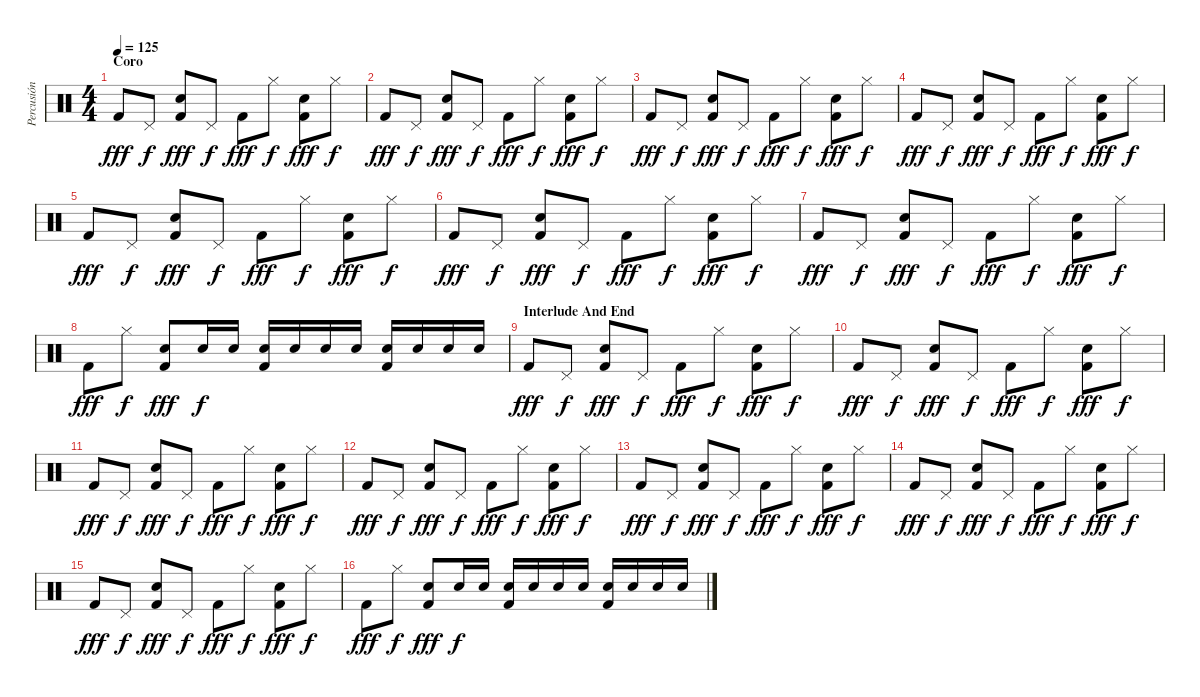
\track ("Percusión" "Percusión") {instrument percussion}
\staff {score}
\articulation defaults
\ts (4 4)
\section ("" "Coro")
\tempo 125
\clef neutral
\ks c "Kick (hit) 2".8{dy fff} "Pedal Hi-Hat (hit)".8{dy f}
("Electric Snare (hit)" "Kick (hit) 2").8{dy fff} "Pedal Hi-Hat (hit)".8{dy f} "Kick (hit) 2".8{dy fff} "Hi-Hat (closed)".8{dy f} ("Electric Snare (hit)" "Kick (hit) 2").8{dy fff} "Hi-Hat (closed)".8{dy f} |
"Kick (hit) 2".8{dy fff} "Pedal Hi-Hat (hit)".8{dy f} ("Electric Snare (hit)" "Kick (hit) 2").8{dy fff} "Pedal Hi-Hat (hit)".8{dy f} "Kick (hit) 2".8{dy fff} "Hi-Hat (closed)".8{dy f} ("Electric Snare (hit)" "Kick (hit) 2").8{dy fff} "Hi-Hat (closed)".8{dy f} |
"Kick (hit) 2".8{dy fff} "Pedal Hi-Hat (hit)".8{dy f} ("Electric Snare (hit)" "Kick (hit) 2").8{dy fff} "Pedal Hi-Hat (hit)".8{dy f} "Kick (hit) 2".8{dy fff} "Hi-Hat (closed)".8{dy f} ("Electric Snare (hit)" "Kick (hit) 2").8{dy fff} "Hi-Hat (closed)".8{dy f} |
"Kick (hit) 2".8{dy fff} "Pedal Hi-Hat (hit)".8{dy f} ("Electric Snare (hit)" "Kick (hit) 2").8{dy fff} "Pedal Hi-Hat (hit)".8{dy f} "Kick (hit) 2".8{dy fff} "Hi-Hat (closed)".8{dy f} ("Electric Snare (hit)" "Kick (hit) 2").8{dy fff} "Hi-Hat (closed)".8{dy f} |
"Kick (hit) 2".8{dy fff} "Pedal Hi-Hat (hit)".8{dy f} ("Electric Snare (hit)" "Kick (hit) 2").8{dy fff} "Pedal Hi-Hat (hit)".8{dy f} "Kick (hit) 2".8{dy fff} "Hi-Hat (closed)".8{dy f} ("Electric Snare (hit)" "Kick (hit) 2").8{dy fff} "Hi-Hat (closed)".8{dy f} |
"Kick (hit) 2".8{dy fff} "Pedal Hi-Hat (hit)".8{dy f} ("Electric Snare (hit)" "Kick (hit) 2").8{dy fff} "Pedal Hi-Hat (hit)".8{dy f} "Kick (hit) 2".8{dy fff} "Hi-Hat (closed)".8{dy f} ("Electric Snare (hit)" "Kick (hit) 2").8{dy fff} "Hi-Hat (closed)".8{dy f} |
"Kick (hit) 2".8{dy fff} "Pedal Hi-Hat (hit)".8{dy f} ("Electric Snare (hit)" "Kick (hit) 2").8{dy fff} "Pedal Hi-Hat (hit)".8{dy f} "Kick (hit) 2".8{dy fff} "Hi-Hat (closed)".8{dy f} ("Electric Snare (hit)" "Kick (hit) 2").8{dy fff} "Hi-Hat (closed)".8{dy f} |
"Kick (hit) 2".8{dy fff} "Hi-Hat (closed)".8{dy f} ("Electric Snare (hit)" "Kick (hit) 2").8{dy fff volume 7} "Electric Snare (hit)".16{dy f volume 13} "Electric Snare (hit)".16 ("Electric Snare (hit)" "Kick (hit) 2").16 "Electric Snare (hit)".16 "Electric Snare (hit)".16 "Electric Snare (hit)".16 ("Electric Snare (hit)" "Kick (hit) 2").16 "Electric Snare (hit)".16 "Electric Snare (hit)".16 "Electric Snare (hit)".16 |
\section ("" "Interlude And End")
"Kick (hit) 2".8{dy fff} "Pedal Hi-Hat (hit)".8{dy f} ("Electric Snare (hit)" "Kick (hit) 2").8{dy fff} "Pedal Hi-Hat (hit)".8{dy f} "Kick (hit) 2".8{dy fff} "Hi-Hat (closed)".8{dy f} ("Electric Snare (hit)" "Kick (hit) 2").8{dy fff} "Hi-Hat (closed)".8{dy f} |
"Kick (hit) 2".8{dy fff} "Pedal Hi-Hat (hit)".8{dy f} ("Electric Snare (hit)" "Kick (hit) 2").8{dy fff} "Pedal Hi-Hat (hit)".8{dy f} "Kick (hit) 2".8{dy fff} "Hi-Hat (closed)".8{dy f} ("Electric Snare (hit)" "Kick (hit) 2").8{dy fff} "Hi-Hat (closed)".8{dy f} |
"Kick (hit) 2".8{dy fff} "Pedal Hi-Hat (hit)".8{dy f} ("Electric Snare (hit)" "Kick (hit) 2").8{dy fff} "Pedal Hi-Hat (hit)".8{dy f} "Kick (hit) 2".8{dy fff} "Hi-Hat (closed)".8{dy f} ("Electric Snare (hit)" "Kick (hit) 2").8{dy fff} "Hi-Hat (closed)".8{dy f} |
"Kick (hit) 2".8{dy fff} "Pedal Hi-Hat (hit)".8{dy f} ("Electric Snare (hit)" "Kick (hit) 2").8{dy fff} "Pedal Hi-Hat (hit)".8{dy f} "Kick (hit) 2".8{dy fff} "Hi-Hat (closed)".8{dy f} ("Electric Snare (hit)" "Kick (hit) 2").8{dy fff} "Hi-Hat (closed)".8{dy f} |
"Kick (hit) 2".8{dy fff} "Pedal Hi-Hat (hit)".8{dy f} ("Electric Snare (hit)" "Kick (hit) 2").8{dy fff} "Pedal Hi-Hat (hit)".8{dy f} "Kick (hit) 2".8{dy fff} "Hi-Hat (closed)".8{dy f} ("Electric Snare (hit)" "Kick (hit) 2").8{dy fff} "Hi-Hat (closed)".8{dy f} |
"Kick (hit) 2".8{dy fff} "Pedal Hi-Hat (hit)".8{dy f} ("Electric Snare (hit)" "Kick (hit) 2").8{dy fff} "Pedal Hi-Hat (hit)".8{dy f} "Kick (hit) 2".8{dy fff} "Hi-Hat (closed)".8{dy f} ("Electric Snare (hit)" "Kick (hit) 2").8{dy fff} "Hi-Hat (closed)".8{dy f} |
"Kick (hit) 2".8{dy fff} "Pedal Hi-Hat (hit)".8{dy f} ("Electric Snare (hit)" "Kick (hit) 2").8{dy fff} "Pedal Hi-Hat (hit)".8{dy f} "Kick (hit) 2".8{dy fff} "Hi-Hat (closed)".8{dy f} ("Electric Snare (hit)" "Kick (hit) 2").8{dy fff} "Hi-Hat (closed)".8{dy f} |
"Kick (hit) 2".8{dy fff} "Hi-Hat (closed)".8{dy f} ("Electric Snare (hit)" "Kick (hit) 2").8{dy fff volume 7} "Electric Snare (hit)".16{dy f volume 13} "Electric Snare (hit)".16 ("Electric Snare (hit)" "Kick (hit) 2").16 "Electric Snare (hit)".16 "Electric Snare (hit)".16 "Electric Snare (hit)".16 ("Electric Snare (hit)" "Kick (hit) 2").16 "Electric Snare (hit)".16 "Electric Snare (hit)".16 "Electric Snare (hit)".16
